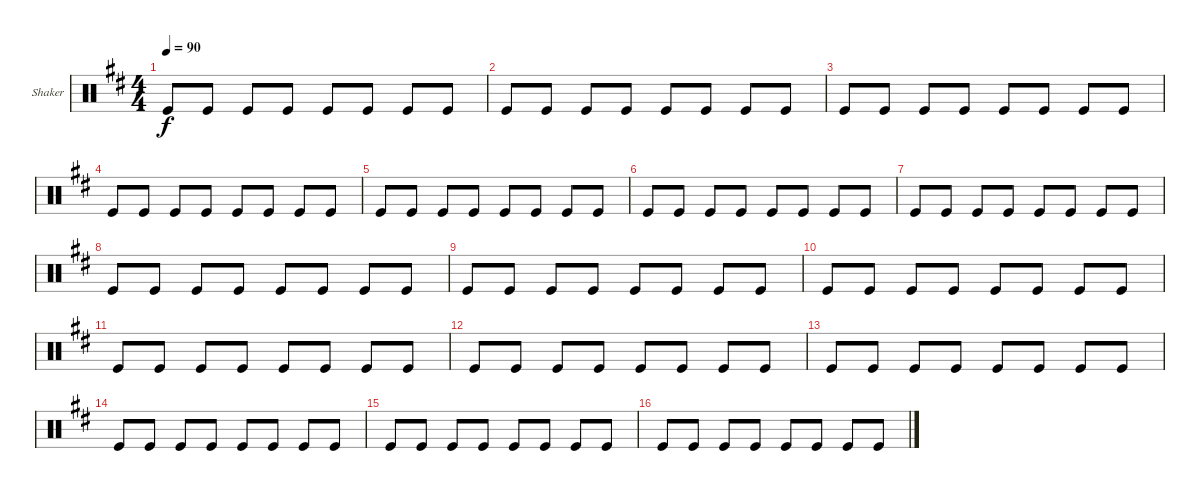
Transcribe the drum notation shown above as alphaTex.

\defaultSystemsLayout 4
\bracketExtendMode groupsimilarinstruments
\firstSystemTrackNameOrientation horizontal
\otherSystemsTrackNameOrientation horizontal
\track ("Shaker" "Shaker") {multiBarRest instrument percussion}
\staff {score}
\articulation defaults
\ts (4 4)
\tempo 90
\clef neutral
\ks d "Kick (hit)".8{dy f} "Kick (hit)".8 "Kick (hit)".8 "Kick (hit)".8 "Kick (hit)".8 "Kick (hit)".8 "Kick (hit)".8 "Kick (hit)".8
|
"Kick (hit)".8 "Kick (hit)".8 "Kick (hit)".8 "Kick (hit)".8 "Kick (hit)".8 "Kick (hit)".8 "Kick (hit)".8 "Kick (hit)".8 |
"Kick (hit)".8 "Kick (hit)".8 "Kick (hit)".8 "Kick (hit)".8 "Kick (hit)".8 "Kick (hit)".8 "Kick (hit)".8 "Kick (hit)".8 |
"Kick (hit)".8 "Kick (hit)".8 "Kick (hit)".8 "Kick (hit)".8 "Kick (hit)".8 "Kick (hit)".8 "Kick (hit)".8 "Kick (hit)".8 |
"Kick (hit)".8 "Kick (hit)".8 "Kick (hit)".8 "Kick (hit)".8 "Kick (hit)".8 "Kick (hit)".8 "Kick (hit)".8 "Kick (hit)".8 |
"Kick (hit)".8 "Kick (hit)".8 "Kick (hit)".8 "Kick (hit)".8 "Kick (hit)".8 "Kick (hit)".8 "Kick (hit)".8 "Kick (hit)".8 |
"Kick (hit)".8 "Kick (hit)".8 "Kick (hit)".8 "Kick (hit)".8 "Kick (hit)".8 "Kick (hit)".8 "Kick (hit)".8 "Kick (hit)".8 |
"Kick (hit)".8 "Kick (hit)".8 "Kick (hit)".8 "Kick (hit)".8 "Kick (hit)".8 "Kick (hit)".8 "Kick (hit)".8 "Kick (hit)".8 |
"Kick (hit)".8 "Kick (hit)".8 "Kick (hit)".8 "Kick (hit)".8 "Kick (hit)".8 "Kick (hit)".8 "Kick (hit)".8 "Kick (hit)".8 |
"Kick (hit)".8 "Kick (hit)".8 "Kick (hit)".8 "Kick (hit)".8 "Kick (hit)".8 "Kick (hit)".8 "Kick (hit)".8 "Kick (hit)".8 |
"Kick (hit)".8 "Kick (hit)".8 "Kick (hit)".8 "Kick (hit)".8 "Kick (hit)".8 "Kick (hit)".8 "Kick (hit)".8 "Kick (hit)".8 |
"Kick (hit)".8 "Kick (hit)".8 "Kick (hit)".8 "Kick (hit)".8 "Kick (hit)".8 "Kick (hit)".8 "Kick (hit)".8 "Kick (hit)".8 |
"Kick (hit)".8 "Kick (hit)".8 "Kick (hit)".8 "Kick (hit)".8 "Kick (hit)".8 "Kick (hit)".8 "Kick (hit)".8 "Kick (hit)".8 |
"Kick (hit)".8 "Kick (hit)".8 "Kick (hit)".8 "Kick (hit)".8 "Kick (hit)".8 "Kick (hit)".8 "Kick (hit)".8 "Kick (hit)".8 |
"Kick (hit)".8 "Kick (hit)".8 "Kick (hit)".8 "Kick (hit)".8 "Kick (hit)".8 "Kick (hit)".8 "Kick (hit)".8 "Kick (hit)".8 |
"Kick (hit)".8 "Kick (hit)".8 "Kick (hit)".8 "Kick (hit)".8 "Kick (hit)".8 "Kick (hit)".8 "Kick (hit)".8 "Kick (hit)".8
